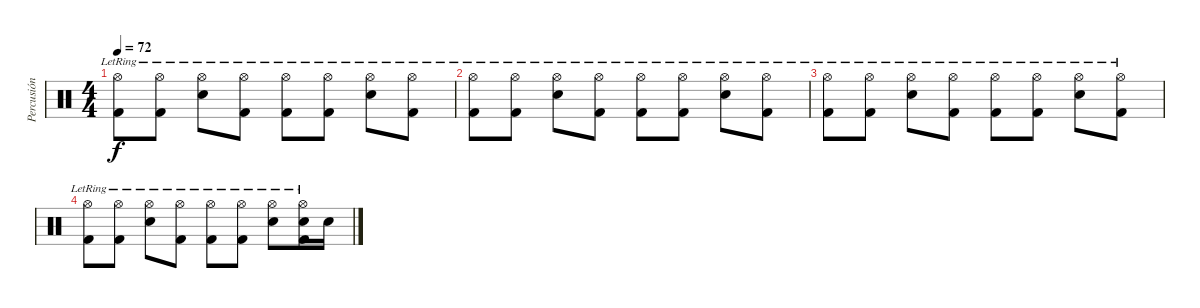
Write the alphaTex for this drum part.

\track ("Percusión" "Percusión") {instrument percussion}
\staff {score}
\articulation defaults
\ts (4 4)
\tempo 72
\clef neutral
\ks c
("Hi-Hat (open)"{lr} "Kick (hit) 2"{lr}).8{dy f} ("Hi-Hat (open)"{lr} "Kick (hit) 2"{lr}).8 ("Hi-Hat (open)"{lr} "Electric Snare (hit)"{lr}).8 ("Hi-Hat (open)"{lr} "Kick (hit) 2"{lr}).8 ("Hi-Hat (open)"{lr} "Kick (hit) 2"{lr}).8 ("Hi-Hat (open)"{lr} "Kick (hit) 2"{lr}).8 ("Hi-Hat (open)"{lr} "Electric Snare (hit)"{lr}).8 ("Hi-Hat (open)"{lr} "Kick (hit) 2"{lr}).8 |
("Hi-Hat (open)"{lr} "Kick (hit) 2"{lr}).8 ("Hi-Hat (open)"{lr} "Kick (hit) 2"{lr}).8 ("Hi-Hat (open)"{lr} "Electric Snare (hit)"{lr}).8 ("Hi-Hat (open)"{lr} "Kick (hit) 2"{lr}).8 ("Hi-Hat (open)"{lr} "Kick (hit) 2"{lr}).8 ("Hi-Hat (open)"{lr} "Kick (hit) 2"{lr}).8 ("Hi-Hat (open)"{lr} "Electric Snare (hit)"{lr}).8 ("Hi-Hat (open)"{lr} "Kick (hit) 2"{lr}).8 |
("Hi-Hat (open)"{lr} "Kick (hit) 2"{lr}).8 ("Hi-Hat (open)"{lr} "Kick (hit) 2"{lr}).8 ("Hi-Hat (open)"{lr} "Electric Snare (hit)"{lr}).8 ("Hi-Hat (open)"{lr} "Kick (hit) 2"{lr}).8 ("Hi-Hat (open)"{lr} "Kick (hit) 2"{lr}).8 ("Hi-Hat (open)"{lr} "Kick (hit) 2"{lr}).8 ("Hi-Hat (open)"{lr} "Electric Snare (hit)"{lr}).8 ("Hi-Hat (open)"{lr} "Kick (hit) 2"{lr}).8 |
("Hi-Hat (open)"{lr} "Kick (hit) 2"{lr}).8 ("Hi-Hat (open)"{lr} "Kick (hit) 2"{lr}).8 ("Hi-Hat (open)"{lr} "Electric Snare (hit)"{lr}).8 ("Hi-Hat (open)"{lr} "Kick (hit) 2"{lr}).8 ("Hi-Hat (open)"{lr} "Kick (hit) 2"{lr}).8 ("Hi-Hat (open)" "Kick (hit) 2"{lr}).8 ("Hi-Hat (open)"{lr} "Electric Snare (hit)"{lr}).8 ("Hi-Hat (open)"{lr} "Electric Snare (hit)" "Kick (hit) 2"{lr}).16 "Electric Snare (hit)".16
